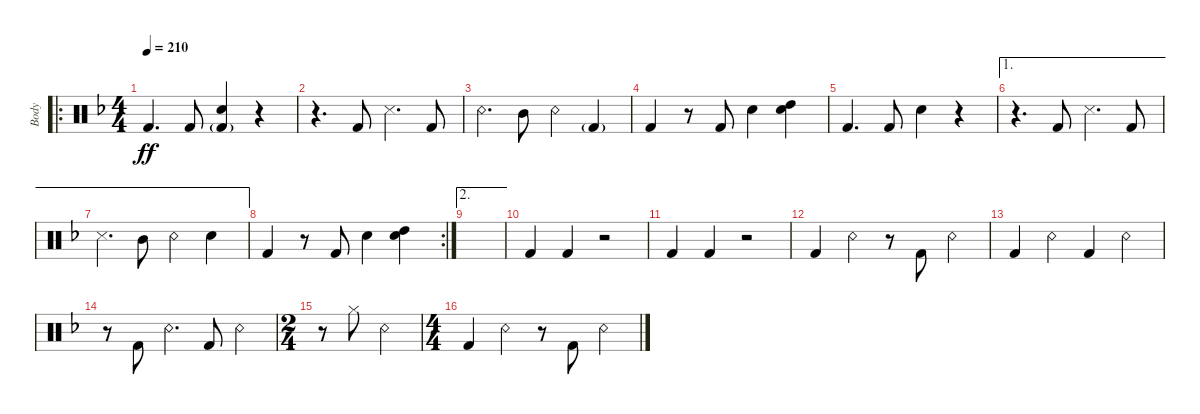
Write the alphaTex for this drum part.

\defaultSystemsLayout 2
\bracketExtendMode groupsimilarinstruments
\otherSystemsTrackNameOrientation horizontal
\track ("Body" "Body") {instrument percussion}
\staff {score}
\articulation defaults
\ro
\ts (4 4)
\scale
1.05723
\tempo 210
\accidentals auto
\clef neutral
\ottava regular
\simile none
\scale
0.333333
\ks dminor "Kick (hit) 2"{acc forcenatural}.4{d dy ff beam Up} "Kick (hit) 2"{acc forcenatural}.8{beam Up}
("Snare (hit) 2"{acc forcenatural} "Kick (hit) 2"{g acc forcenatural}).4{beam Up} r.4{beam Up} |
\scale
0.942767
\scale
0.333333 r.4{d beam Down} "Kick (hit) 2"{acc forcenatural}.8{beam Up} "Snare (side stick) 3"{acc forcenatural}.4{d beam Down} "Kick (hit) 2"{acc forcenatural}.8{beam Up} |
\scale
1.04787
\scale
0.333333 "Snare (rim shot)"{acc forcenatural}.4{d beam Down} "Mid Tom (hit)"{acc forcenatural}.8{beam Down} "Snare (rim shot)"{acc forcenatural}.4{beam Down} "Kick (hit) 2"{g acc forcenatural}.4{beam Up} |
\scale
0.952125
\scale
0.333333 "Kick (hit) 2"{acc forcenatural}.4{beam Up} r.8{beam Up} "Kick (hit) 2"{acc forcenatural}.8{beam Up} "Snare (hit) 2"{acc forcenatural}.4{beam Down} ("High Tom (hit)"{acc forcenatural} "Snare (hit) 2"{acc forcenatural}).4{beam Down} |
\scale
1.04787
\scale
0.333333 "Kick (hit) 2"{acc forcenatural}.4{d beam Up} "Kick (hit) 2"{acc forcenatural}.8{beam Up} "Snare (hit) 2"{acc forcenatural}.4{beam Down} r.4{beam Down} |
\ae 1
\scale
0.952125
\scale
0.333333 r.4{d beam Down} "Kick (hit) 2"{acc forcenatural}.8{beam Up} "Snare (side stick) 3"{acc forcenatural}.4{d beam Down} "Kick (hit) 2"{acc forcenatural}.8{beam Up} |
\ae 1
\scale
1.03568
\scale
0.333333 "Snare (side stick) 3"{acc forcenatural}.4{d beam Down} "Mid Tom (hit)"{acc forcenatural}.8{beam Down} "Snare (rim shot)"{acc forcenatural}.4{beam Down} "Snare (hit) 2"{acc forcenatural}.4{beam Down} |
\rc 2
\scale
0.964324
\scale
0.333333 "Kick (hit) 2"{acc forcenatural}.4{beam Up} r.8{beam Up} "Kick (hit) 2"{acc forcenatural}.8{beam Up} "Snare (hit) 2"{acc forcenatural}.4{beam Down} ("High Tom (hit)"{acc forcenatural} "Snare (hit) 2"{acc forcenatural}).4{beam Down} |
\ae 2
\scale
1.04787
\scale
0.333333 |
\scale
0.952125
\scale
0.333333 "Kick (hit) 2"{acc forcenatural}.4{beam Up} "Kick (hit) 2"{acc forcenatural}.4{beam Up} r.2{beam Up} |
\scale
1.03751
\scale
0.333333 "Kick (hit) 2"{acc forcenatural}.4{beam Up} "Kick (hit) 2"{acc forcenatural}.4{beam Up} r.2{beam Up} |
\scale
0.962487
\scale
0.333333 "Kick (hit) 2"{acc forcenatural}.4{beam Up} "Snare (rim shot)"{acc forcenatural}.4{beam Down} r.8{beam Down} "Kick (hit) 2"{acc forcenatural}.8{beam Up} "Snare (rim shot)"{acc forcenatural}.4{beam Down} |
\scale
1.04787
\scale
0.333333 "Kick (hit) 2"{acc forcenatural}.4{beam Up} "Snare (rim shot)"{acc forcenatural}.4{beam Down} "Kick (hit) 2"{acc forcenatural}.4{beam Up} "Snare (rim shot)"{acc forcenatural}.4{beam Down} |
\scale
0.952125
\scale
0.333333 r.8{beam Down} "Kick (hit) 2"{acc forcenatural}.8{beam Up} "Snare (rim shot)"{acc forcenatural}.4{d beam Down} "Kick (hit) 2"{acc forcenatural}.8{beam Up} "Snare (rim shot)"{acc forcenatural}.4{beam Down} |
\ts (2 4)
\scale
1.04679
\scale
0.333333 r.8{beam Down} "Hi-Hat (closed)"{acc forcenatural}.8{beam Down} "Snare (rim shot)"{acc forcenatural}.4{beam Down} |
\ts (4 4)
\scale
0.953211
\scale
0.333333 "Kick (hit) 2"{acc forcenatural}.4{beam Up} "Snare (rim shot)"{acc forcenatural}.4{beam Down} r.8{beam Down} "Kick (hit) 2"{acc forcenatural}.8{beam Up} "Snare (rim shot)"{acc forcenatural}.4{beam Down}
